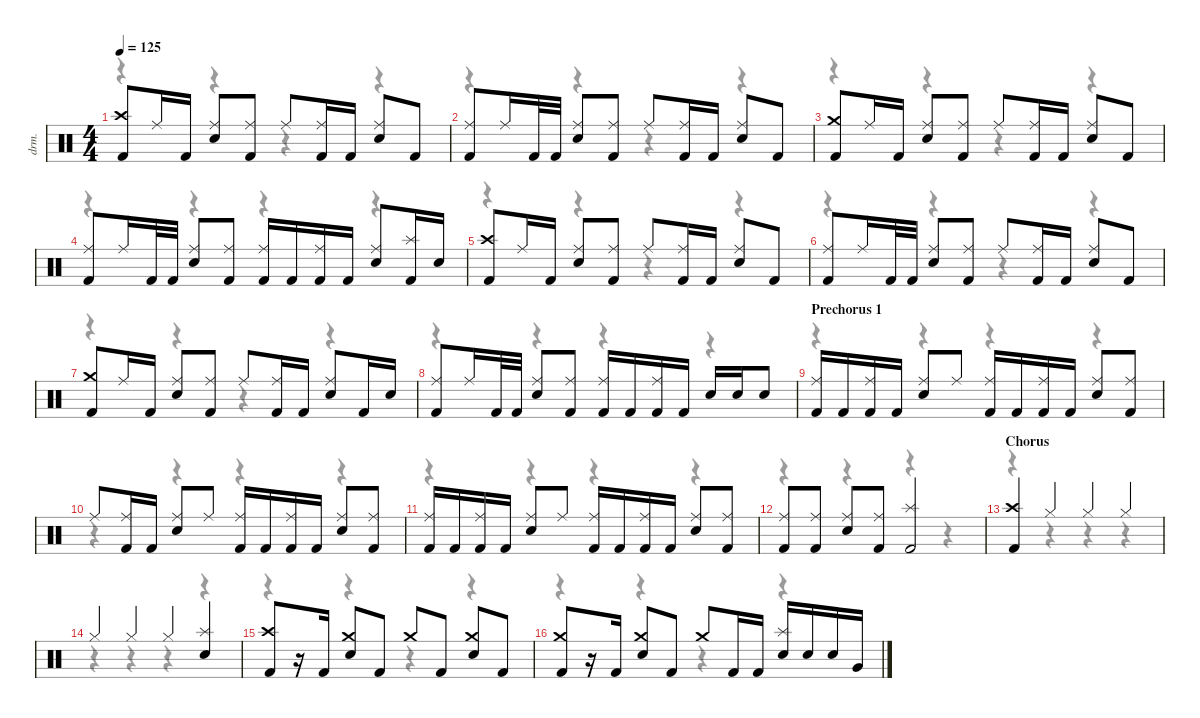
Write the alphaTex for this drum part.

\defaultSystemsLayout 4
\hideDynamics
\bracketExtendMode nobrackets
\otherSystemsTrackNameOrientation horizontal
\track ("Drums" "drm.") {instrument percussion}
\staff {score}
\articulation defaults
\voice
\ts (4 4)
\tempo 125
\clef neutral
\ks c
("Crash high (hit)" "Kick (hit) 2").8{dy f} "Ride (middle)".16 "Kick (hit) 2".16{dy fff} ("Ride (middle)" "Snare (hit) 2").8{dy f} ("Ride (middle)" "Kick (hit) 2").8 "Ride (middle)".8 ("Ride (middle)" "Kick (hit) 2").16 "Kick (hit) 2".16{dy fff} ("Ride (middle)" "Snare (hit) 2").8{dy f} "Kick (hit) 2".8{dy fff} |
("Ride (middle)" "Kick (hit) 2").8{dy f} "Ride (middle)".16 "Kick (hit) 2".32{dy fff} "Kick (hit) 2".32 ("Ride (middle)" "Snare (hit) 2").8{dy f} ("Ride (middle)" "Kick (hit) 2").8 "Ride (middle)".8 ("Ride (middle)" "Kick (hit) 2").16 "Kick (hit) 2".16{dy fff} ("Ride (middle)" "Snare (hit) 2").8{dy f} "Kick (hit) 2".8{dy fff} |
("Crash medium (hit)" "Kick (hit) 2").8{dy f} "Ride (middle)".16 "Kick (hit) 2".16{dy fff} ("Ride (middle)" "Snare (hit) 2").8{dy f} ("Ride (middle)" "Kick (hit) 2").8 "Ride (middle)".8 ("Ride (middle)" "Kick (hit) 2").16 "Kick (hit) 2".16{dy fff} ("Ride (middle)" "Snare (hit) 2").8{dy f} "Kick (hit) 2".8{dy fff} |
("Ride (middle)" "Kick (hit) 2").8{dy f} "Ride (middle)".16 "Kick (hit) 2".32{dy fff} "Kick (hit) 2".32 ("Ride (middle)" "Snare (hit) 2").8{dy f} ("Ride (middle)" "Kick (hit) 2").8 ("Ride (middle)" "Kick (hit) 2").16 "Kick (hit) 2".16 ("Ride (middle)" "Kick (hit) 2").16 "Kick (hit) 2".16{dy fff} ("Ride (middle)" "Snare (hit) 2").8{dy f} ("Splash (hit)" "Kick (hit) 2").16 "Snare (hit) 2".16 |
("Crash high (hit)" "Kick (hit) 2").8 "Ride (middle)".16 "Kick (hit) 2".16{dy fff} ("Ride (middle)" "Snare (hit) 2").8{dy f} ("Ride (middle)" "Kick (hit) 2").8 "Ride (middle)".8 ("Ride (middle)" "Kick (hit) 2").16 "Kick (hit) 2".16{dy fff} ("Ride (middle)" "Snare (hit) 2").8{dy f} "Kick (hit) 2".8{dy fff} |
("Ride (middle)" "Kick (hit) 2").8{dy f} "Ride (middle)".16 "Kick (hit) 2".32{dy fff} "Kick (hit) 2".32 ("Ride (middle)" "Snare (hit) 2").8{dy f} ("Ride (middle)" "Kick (hit) 2").8 "Ride (middle)".8 ("Ride (middle)" "Kick (hit) 2").16 "Kick (hit) 2".16{dy fff} ("Ride (middle)" "Snare (hit) 2").8{dy f} "Kick (hit) 2".8{dy fff} |
("Crash medium (hit)" "Kick (hit) 2").8{dy f} "Ride (middle)".16 "Kick (hit) 2".16{dy fff} ("Ride (middle)" "Snare (hit) 2").8{dy f} ("Ride (middle)" "Kick (hit) 2").8 "Ride (middle)".8 ("Ride (middle)" "Kick (hit) 2").16 "Kick (hit) 2".16{dy fff} ("Ride (middle)" "Snare (hit) 2").8{dy f} "Kick (hit) 2".16{dy fff} "Snare (hit) 2".16{dy f} |
("Ride (middle)" "Kick (hit) 2").8 "Ride (middle)".16 "Kick (hit) 2".32{dy fff} "Kick (hit) 2".32 ("Ride (middle)" "Snare (hit) 2").8{dy f} ("Ride (middle)" "Kick (hit) 2").8 ("Ride (middle)" "Kick (hit) 2").16 "Kick (hit) 2".16 ("Ride (middle)" "Kick (hit) 2").16 "Kick (hit) 2".16{dy fff} "Snare (hit) 2".16 "Snare (hit) 2".16 "Snare (hit) 2".8 |
\section ("" "Prechorus 1")
("Ride (middle)" "Kick (hit) 2").16{dy f} "Kick (hit) 2".16{dy fff} ("Ride (middle)" "Kick (hit) 2").16{dy f} "Kick (hit) 2".16{dy fff} ("Ride (middle)" "Snare (hit) 2").8{dy f} "Ride (middle)".8 ("Ride (middle)" "Kick (hit) 2").16 "Kick (hit) 2".16{dy fff} ("Ride (middle)" "Kick (hit) 2").16{dy f} "Kick (hit) 2".16{dy fff} ("Ride (middle)" "Snare (hit) 2").8{dy f} ("Ride (middle)" "Kick (hit) 2").8 |
"Ride (middle)".8 ("Ride (middle)" "Kick (hit) 2").16 "Kick (hit) 2".16{dy fff} ("Ride (middle)" "Snare (hit) 2").8{dy f} "Ride (middle)".8 ("Ride (middle)" "Kick (hit) 2").16 "Kick (hit) 2".16{dy fff} ("Ride (middle)" "Kick (hit) 2").16{dy f} "Kick (hit) 2".16{dy fff} ("Ride (middle)" "Snare (hit) 2").8{dy f} ("Ride (middle)" "Kick (hit) 2").8 |
("Ride (middle)" "Kick (hit) 2").16 "Kick (hit) 2".16{dy fff} ("Ride (middle)" "Kick (hit) 2").16{dy f} "Kick (hit) 2".16{dy fff} ("Ride (middle)" "Snare (hit) 2").8{dy f} "Ride (middle)".8 ("Ride (middle)" "Kick (hit) 2").16 "Kick (hit) 2".16{dy fff} ("Ride (middle)" "Kick (hit) 2").16{dy f} "Kick (hit) 2".16{dy fff} ("Ride (middle)" "Snare (hit) 2").8{dy f} ("Ride (middle)" "Kick (hit) 2").8 |
("Ride (middle)" "Kick (hit) 2").8 ("Ride (middle)" "Kick (hit) 2").8 ("Ride (middle)" "Snare (hit) 2").8 ("Ride (middle)" "Kick (hit) 2").8 ("Splash (hit)" "Kick (hit) 2").2 |
\section ("" "Chorus")
("Crash high (hit)" "Kick (hit) 2").4 "Hi-Hat (closed)".4 "Hi-Hat (closed)".4 "Hi-Hat (closed)".4 |
"Hi-Hat (closed)".4 "Hi-Hat (closed)".4 "Hi-Hat (closed)".4 ("Splash (hit)" "Snare (hit) 2").4 |
("Crash high (hit)" "Kick (hit) 2").8 r.16 "Kick (hit) 2".16 ("Crash medium (hit)" "Snare (hit) 2").8 "Kick (hit) 2".8 "Crash medium (hit)".8 "Kick (hit) 2".8 ("Crash medium (hit)" "Snare (hit) 2").8 "Kick (hit) 2".8 |
("Crash medium (hit)" "Kick (hit) 2").8 r.16 "Kick (hit) 2".16 ("Crash medium (hit)" "Snare (hit) 2").8 "Kick (hit) 2".8 "Crash medium (hit)".8 "Kick (hit) 2".16 "Kick (hit) 2".16 ("Splash (hit)" "Snare (hit) 2").16 "Snare (hit) 2".16 "Snare (hit) 2".16 "Very Low Tom (hit)".16
\voice
\clef neutral
\ottava regular
\simile none
\ks c
r.4{dy mf} r.4 r.4 r.4 |
r.4 r.4 r.4 r.4 |
r.4 r.4 r.4 r.4 |
r.4 r.4 r.4 r.4 |
r.4 r.4 r.4 r.4 |
r.4 r.4 r.4 r.4 |
r.4 r.4 r.4 r.4 |
r.4 r.4 r.4 r.4 |
r.4 r.4 r.4 r.4 |
r.4 r.4 r.4 r.4 |
r.4 r.4 r.4 r.4 |
r.4 r.4 r.4 r.4 |
r.4 r.4 r.4 r.4 |
r.4 r.4 r.4 r.4 |
r.4 r.4 r.4 r.4 |
r.4 r.4 r.4 r.4
